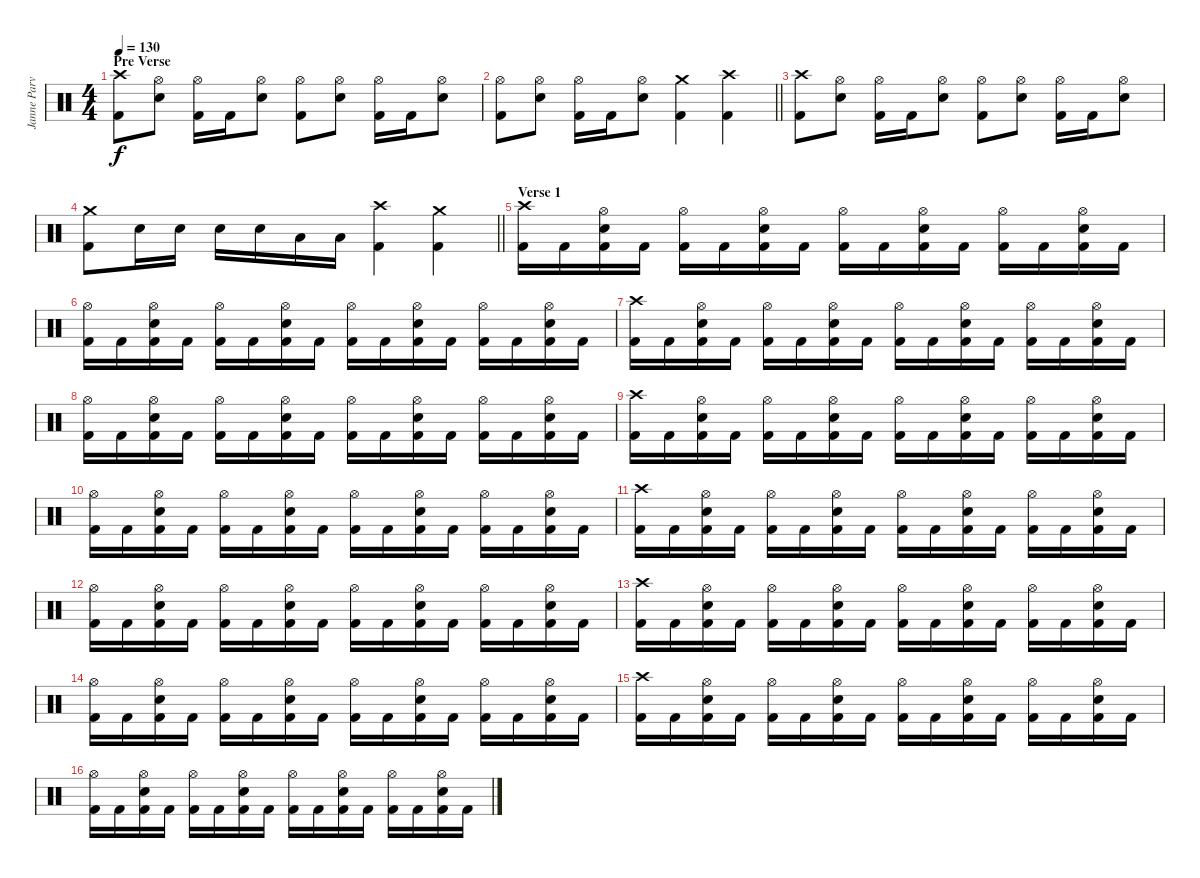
\track ("Janne Parviainen" "Janne Parv") {instrument percussion}
\staff {score}
\articulation defaults
\ts (4 4)
\section ("" "Pre Verse")
\tempo 130
\clef neutral
\ks c
("Crash high (hit)" "Kick (hit) 2").8{dy f} ("Hi-Hat (open)" "Electric Snare (hit)").8 ("Hi-Hat (open)" "Kick (hit) 2").16 "Kick (hit) 2".16 ("Hi-Hat (open)" "Electric Snare (hit)").8 ("Hi-Hat (open)" "Kick (hit) 2").8 ("Hi-Hat (open)" "Electric Snare (hit)").8 ("Hi-Hat (open)" "Kick (hit) 2").16 "Kick (hit) 2".16 ("Hi-Hat (open)" "Electric Snare (hit)").8 |
\barLineRight lightlight
("Hi-Hat (open)" "Kick (hit) 2").8 ("Hi-Hat (open)" "Electric Snare (hit)").8 ("Hi-Hat (open)" "Kick (hit) 2").16 "Kick (hit) 2".16 ("Hi-Hat (open)" "Electric Snare (hit)").8 ("Crash medium (hit)" "Kick (hit) 2").4 ("Crash high (hit)" "Kick (hit) 2").4 |
("Crash high (hit)" "Kick (hit) 2").8 ("Hi-Hat (open)" "Electric Snare (hit)").8 ("Hi-Hat (open)" "Kick (hit) 2").16 "Kick (hit) 2".16 ("Hi-Hat (open)" "Electric Snare (hit)").8 ("Hi-Hat (open)" "Kick (hit) 2").8 ("Hi-Hat (open)" "Electric Snare (hit)").8 ("Hi-Hat (open)" "Kick (hit) 2").16 "Kick (hit) 2".16 ("Hi-Hat (open)" "Electric Snare (hit)").8 |
\barLineRight lightlight
("Crash medium (hit)" "Kick (hit) 2").8 "Electric Snare (hit)".16 "Electric Snare (hit)".16 "Electric Snare (hit)".16 "Electric Snare (hit)".16 "Low Tom (hit)".16 "Low Tom (hit)".16 ("Crash high (hit)" "Kick (hit) 2").4 ("Crash medium (hit)" "Kick (hit) 2").4 |
\section ("" "Verse 1")
("Crash high (hit)" "Kick (hit) 2").16 "Kick (hit) 2".16 ("Hi-Hat (open)" "Electric Snare (hit)" "Kick (hit) 2").16 "Kick (hit) 2".16 ("Hi-Hat (open)" "Kick (hit) 2").16 "Kick (hit) 2".16 ("Hi-Hat (open)" "Electric Snare (hit)" "Kick (hit) 2").16 "Kick (hit) 2".16 ("Hi-Hat (open)" "Kick (hit) 2").16 "Kick (hit) 2".16 ("Hi-Hat (open)" "Electric Snare (hit)" "Kick (hit) 2").16 "Kick (hit) 2".16 ("Hi-Hat (open)" "Kick (hit) 2").16 "Kick (hit) 2".16 ("Hi-Hat (open)" "Electric Snare (hit)" "Kick (hit) 2").16 "Kick (hit) 2".16 |
("Hi-Hat (open)" "Kick (hit) 2").16 "Kick (hit) 2".16 ("Hi-Hat (open)" "Electric Snare (hit)" "Kick (hit) 2").16 "Kick (hit) 2".16 ("Hi-Hat (open)" "Kick (hit) 2").16 "Kick (hit) 2".16 ("Hi-Hat (open)" "Electric Snare (hit)" "Kick (hit) 2").16 "Kick (hit) 2".16 ("Hi-Hat (open)" "Kick (hit) 2").16 "Kick (hit) 2".16 ("Hi-Hat (open)" "Electric Snare (hit)" "Kick (hit) 2").16 "Kick (hit) 2".16 ("Hi-Hat (open)" "Kick (hit) 2").16 "Kick (hit) 2".16 ("Hi-Hat (open)" "Electric Snare (hit)" "Kick (hit) 2").16 "Kick (hit) 2".16 |
("Crash high (hit)" "Kick (hit) 2").16 "Kick (hit) 2".16 ("Hi-Hat (open)" "Electric Snare (hit)" "Kick (hit) 2").16 "Kick (hit) 2".16 ("Hi-Hat (open)" "Kick (hit) 2").16 "Kick (hit) 2".16 ("Hi-Hat (open)" "Electric Snare (hit)" "Kick (hit) 2").16 "Kick (hit) 2".16 ("Hi-Hat (open)" "Kick (hit) 2").16 "Kick (hit) 2".16 ("Hi-Hat (open)" "Electric Snare (hit)" "Kick (hit) 2").16 "Kick (hit) 2".16 ("Hi-Hat (open)" "Kick (hit) 2").16 "Kick (hit) 2".16 ("Hi-Hat (open)" "Electric Snare (hit)" "Kick (hit) 2").16 "Kick (hit) 2".16 |
("Hi-Hat (open)" "Kick (hit) 2").16 "Kick (hit) 2".16 ("Hi-Hat (open)" "Electric Snare (hit)" "Kick (hit) 2").16 "Kick (hit) 2".16 ("Hi-Hat (open)" "Kick (hit) 2").16 "Kick (hit) 2".16 ("Hi-Hat (open)" "Electric Snare (hit)" "Kick (hit) 2").16 "Kick (hit) 2".16 ("Hi-Hat (open)" "Kick (hit) 2").16 "Kick (hit) 2".16 ("Hi-Hat (open)" "Electric Snare (hit)" "Kick (hit) 2").16 "Kick (hit) 2".16 ("Hi-Hat (open)" "Kick (hit) 2").16 "Kick (hit) 2".16 ("Hi-Hat (open)" "Electric Snare (hit)" "Kick (hit) 2").16 "Kick (hit) 2".16 |
("Crash high (hit)" "Kick (hit) 2").16 "Kick (hit) 2".16 ("Hi-Hat (open)" "Electric Snare (hit)" "Kick (hit) 2").16 "Kick (hit) 2".16 ("Hi-Hat (open)" "Kick (hit) 2").16 "Kick (hit) 2".16 ("Hi-Hat (open)" "Electric Snare (hit)" "Kick (hit) 2").16 "Kick (hit) 2".16 ("Hi-Hat (open)" "Kick (hit) 2").16 "Kick (hit) 2".16 ("Hi-Hat (open)" "Electric Snare (hit)" "Kick (hit) 2").16 "Kick (hit) 2".16 ("Hi-Hat (open)" "Kick (hit) 2").16 "Kick (hit) 2".16 ("Hi-Hat (open)" "Electric Snare (hit)" "Kick (hit) 2").16 "Kick (hit) 2".16 |
("Hi-Hat (open)" "Kick (hit) 2").16 "Kick (hit) 2".16 ("Hi-Hat (open)" "Electric Snare (hit)" "Kick (hit) 2").16 "Kick (hit) 2".16 ("Hi-Hat (open)" "Kick (hit) 2").16 "Kick (hit) 2".16 ("Hi-Hat (open)" "Electric Snare (hit)" "Kick (hit) 2").16 "Kick (hit) 2".16 ("Hi-Hat (open)" "Kick (hit) 2").16 "Kick (hit) 2".16 ("Hi-Hat (open)" "Electric Snare (hit)" "Kick (hit) 2").16 "Kick (hit) 2".16 ("Hi-Hat (open)" "Kick (hit) 2").16 "Kick (hit) 2".16 ("Hi-Hat (open)" "Electric Snare (hit)" "Kick (hit) 2").16 "Kick (hit) 2".16 |
("Crash high (hit)" "Kick (hit) 2").16 "Kick (hit) 2".16 ("Hi-Hat (open)" "Electric Snare (hit)" "Kick (hit) 2").16 "Kick (hit) 2".16 ("Hi-Hat (open)" "Kick (hit) 2").16 "Kick (hit) 2".16 ("Hi-Hat (open)" "Electric Snare (hit)" "Kick (hit) 2").16 "Kick (hit) 2".16 ("Hi-Hat (open)" "Kick (hit) 2").16 "Kick (hit) 2".16 ("Hi-Hat (open)" "Electric Snare (hit)" "Kick (hit) 2").16 "Kick (hit) 2".16 ("Hi-Hat (open)" "Kick (hit) 2").16 "Kick (hit) 2".16 ("Hi-Hat (open)" "Electric Snare (hit)" "Kick (hit) 2").16 "Kick (hit) 2".16 |
("Hi-Hat (open)" "Kick (hit) 2").16 "Kick (hit) 2".16 ("Hi-Hat (open)" "Electric Snare (hit)" "Kick (hit) 2").16 "Kick (hit) 2".16 ("Hi-Hat (open)" "Kick (hit) 2").16 "Kick (hit) 2".16 ("Hi-Hat (open)" "Electric Snare (hit)" "Kick (hit) 2").16 "Kick (hit) 2".16 ("Hi-Hat (open)" "Kick (hit) 2").16 "Kick (hit) 2".16 ("Hi-Hat (open)" "Electric Snare (hit)" "Kick (hit) 2").16 "Kick (hit) 2".16 ("Hi-Hat (open)" "Kick (hit) 2").16 "Kick (hit) 2".16 ("Hi-Hat (open)" "Electric Snare (hit)" "Kick (hit) 2").16 "Kick (hit) 2".16 |
("Crash high (hit)" "Kick (hit) 2").16 "Kick (hit) 2".16 ("Hi-Hat (open)" "Electric Snare (hit)" "Kick (hit) 2").16 "Kick (hit) 2".16 ("Hi-Hat (open)" "Kick (hit) 2").16 "Kick (hit) 2".16 ("Hi-Hat (open)" "Electric Snare (hit)" "Kick (hit) 2").16 "Kick (hit) 2".16 ("Hi-Hat (open)" "Kick (hit) 2").16 "Kick (hit) 2".16 ("Hi-Hat (open)" "Electric Snare (hit)" "Kick (hit) 2").16 "Kick (hit) 2".16 ("Hi-Hat (open)" "Kick (hit) 2").16 "Kick (hit) 2".16 ("Hi-Hat (open)" "Electric Snare (hit)" "Kick (hit) 2").16 "Kick (hit) 2".16 |
("Hi-Hat (open)" "Kick (hit) 2").16 "Kick (hit) 2".16 ("Hi-Hat (open)" "Electric Snare (hit)" "Kick (hit) 2").16 "Kick (hit) 2".16 ("Hi-Hat (open)" "Kick (hit) 2").16 "Kick (hit) 2".16 ("Hi-Hat (open)" "Electric Snare (hit)" "Kick (hit) 2").16 "Kick (hit) 2".16 ("Hi-Hat (open)" "Kick (hit) 2").16 "Kick (hit) 2".16 ("Hi-Hat (open)" "Electric Snare (hit)" "Kick (hit) 2").16 "Kick (hit) 2".16 ("Hi-Hat (open)" "Kick (hit) 2").16 "Kick (hit) 2".16 ("Hi-Hat (open)" "Electric Snare (hit)" "Kick (hit) 2").16 "Kick (hit) 2".16 |
("Crash high (hit)" "Kick (hit) 2").16 "Kick (hit) 2".16 ("Hi-Hat (open)" "Electric Snare (hit)" "Kick (hit) 2").16 "Kick (hit) 2".16 ("Hi-Hat (open)" "Kick (hit) 2").16 "Kick (hit) 2".16 ("Hi-Hat (open)" "Electric Snare (hit)" "Kick (hit) 2").16 "Kick (hit) 2".16 ("Hi-Hat (open)" "Kick (hit) 2").16 "Kick (hit) 2".16 ("Hi-Hat (open)" "Electric Snare (hit)" "Kick (hit) 2").16 "Kick (hit) 2".16 ("Hi-Hat (open)" "Kick (hit) 2").16 "Kick (hit) 2".16 ("Hi-Hat (open)" "Electric Snare (hit)" "Kick (hit) 2").16 "Kick (hit) 2".16 |
("Hi-Hat (open)" "Kick (hit) 2").16 "Kick (hit) 2".16 ("Hi-Hat (open)" "Electric Snare (hit)" "Kick (hit) 2").16 "Kick (hit) 2".16 ("Hi-Hat (open)" "Kick (hit) 2").16 "Kick (hit) 2".16 ("Hi-Hat (open)" "Electric Snare (hit)" "Kick (hit) 2").16 "Kick (hit) 2".16 ("Hi-Hat (open)" "Kick (hit) 2").16 "Kick (hit) 2".16 ("Hi-Hat (open)" "Electric Snare (hit)" "Kick (hit) 2").16 "Kick (hit) 2".16 ("Hi-Hat (open)" "Kick (hit) 2").16 "Kick (hit) 2".16 ("Hi-Hat (open)" "Electric Snare (hit)" "Kick (hit) 2").16 "Kick (hit) 2".16
